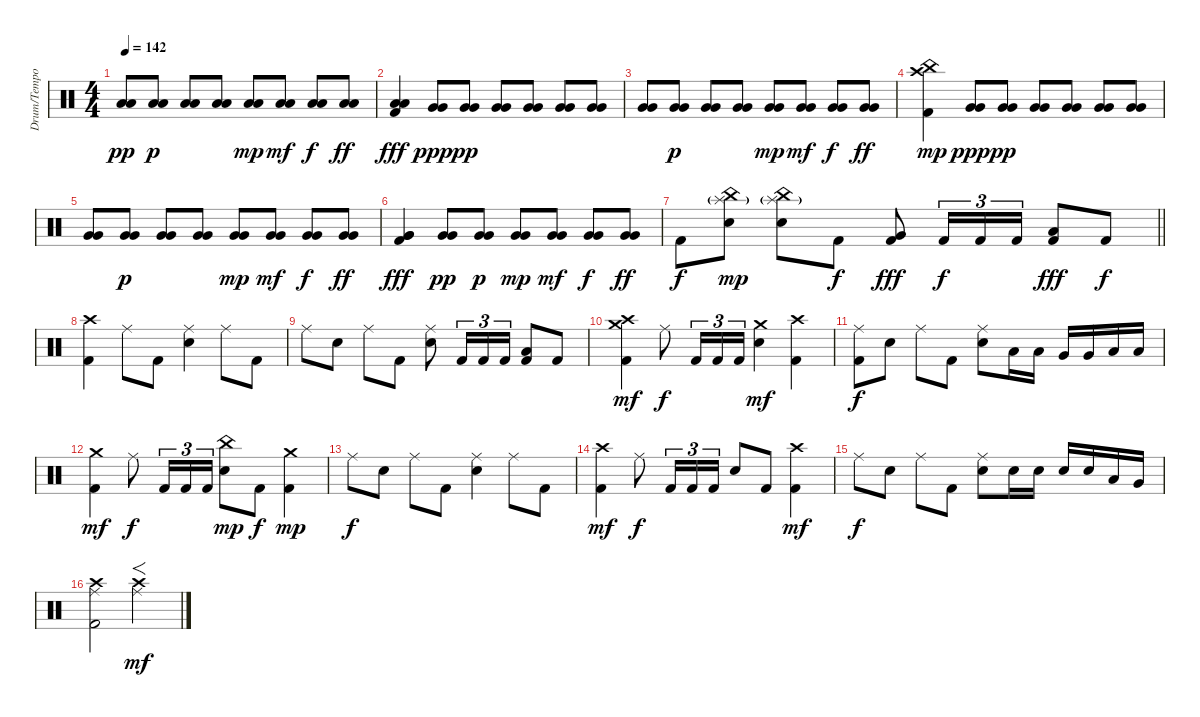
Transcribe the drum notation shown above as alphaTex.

\track ("Drum/Tempo" "Drum/Tempo") {instrument percussion}
\staff {score}
\articulation defaults
\ts (4 4)
\tempo 142
\clef neutral
\ks c
("Low Tom (hit)" "Low Tom (hit)").8{dy pp} ("Low Tom (hit)" "Low Tom (hit)").8{dy p} ("Low Tom (hit)" "Low Tom (hit)").8 ("Low Tom (hit)" "Low Tom (hit)").8 ("Low Tom (hit)" "Low Tom (hit)").8{dy mp} ("Low Tom (hit)" "Low Tom (hit)").8{dy mf} ("Low Tom (hit)" "Low Tom (hit)").8{dy f} ("Low Tom (hit)" "Low Tom (hit)").8{dy ff} |
("Kick (hit) 2" "Low Tom (hit)" "Low Tom (hit)").4{dy fff} ("Very Low Tom (hit)" "Very Low Tom (hit)").8{dy ppp} ("Very Low Tom (hit)" "Very Low Tom (hit)").8{dy pp} ("Very Low Tom (hit)" "Very Low Tom (hit)").8 ("Very Low Tom (hit)" "Very Low Tom (hit)").8 ("Very Low Tom (hit)" "Very Low Tom (hit)").8 ("Very Low Tom (hit)" "Very Low Tom (hit)").8 |
("Very Low Tom (hit)" "Very Low Tom (hit)").8 ("Very Low Tom (hit)" "Very Low Tom (hit)").8{dy p} ("Very Low Tom (hit)" "Very Low Tom (hit)").8 ("Very Low Tom (hit)" "Very Low Tom (hit)").8 ("Very Low Tom (hit)" "Very Low Tom (hit)").8{dy mp} ("Very Low Tom (hit)" "Very Low Tom (hit)").8{dy mf} ("Very Low Tom (hit)" "Very Low Tom (hit)").8{dy f} ("Very Low Tom (hit)" "Very Low Tom (hit)").8{dy ff} |
("Kick (hit) 2" "Crash high (hit)" "China (hit)").4{dy mp} ("Very Low Tom (hit)" "Very Low Tom (hit)").8{dy ppp} ("Very Low Tom (hit)" "Very Low Tom (hit)").8{dy pp} ("Very Low Tom (hit)" "Very Low Tom (hit)").8 ("Very Low Tom (hit)" "Very Low Tom (hit)").8 ("Very Low Tom (hit)" "Very Low Tom (hit)").8 ("Very Low Tom (hit)" "Very Low Tom (hit)").8 |
("Very Low Tom (hit)" "Very Low Tom (hit)").8 ("Very Low Tom (hit)" "Very Low Tom (hit)").8{dy p} ("Very Low Tom (hit)" "Very Low Tom (hit)").8 ("Very Low Tom (hit)" "Very Low Tom (hit)").8 ("Very Low Tom (hit)" "Very Low Tom (hit)").8{dy mp} ("Very Low Tom (hit)" "Very Low Tom (hit)").8{dy mf} ("Very Low Tom (hit)" "Very Low Tom (hit)").8{dy f} ("Very Low Tom (hit)" "Very Low Tom (hit)").8{dy ff} |
("Kick (hit) 2" "Very Low Tom (hit)" "Very Low Tom (hit)").4{dy fff} ("Very Low Tom (hit)" "Very Low Tom (hit)").8{dy pp} ("Very Low Tom (hit)" "Very Low Tom (hit)").8{dy p} ("Very Low Tom (hit)" "Very Low Tom (hit)").8{dy mp} ("Very Low Tom (hit)" "Very Low Tom (hit)").8{dy mf} ("Very Low Tom (hit)" "Very Low Tom (hit)").8{dy f} ("Very Low Tom (hit)" "Very Low Tom (hit)").8{dy ff} |
\barLineRight lightlight "Kick (hit) 2".8{dy f}
("Electric Snare (hit)" "China (hit)" "Splash (hit)"{g}).8{dy mp} ("Electric Snare (hit)" "China (hit)" "Splash (hit)"{g}).8 "Kick (hit) 2".8{dy f} ("Kick (hit) 2" "Very Low Tom (hit)").8{dy fff} "Kick (hit) 2".16{tu (3 2) dy f} "Kick (hit) 2".16{tu (3 2)} "Kick (hit) 2".16{tu (3 2)} ("Kick (hit) 2" "Low Floor Tom (hit)").8{dy fff} "Kick (hit) 2".8{dy f} |
("Kick (hit) 2" "Crash high (hit)").4 "Ride (middle)".8 "Kick (hit) 2".8 ("Electric Snare (hit)" "Ride (middle)").4 "Ride (middle)".8 "Kick (hit) 2".8 |
"Ride (middle)".8 "Electric Snare (hit)".8 "Ride (middle)".8 "Kick (hit) 2".8 ("Electric Snare (hit)" "Ride (middle)").8 "Kick (hit) 2".16{tu (3 2)} "Kick (hit) 2".16{tu (3 2)} "Kick (hit) 2".16{tu (3 2)} ("Kick (hit) 2" "Low Floor Tom (hit)").8 "Kick (hit) 2".8 |
("Kick (hit) 2" "Crash medium (hit)" "Crash high (hit)").4{dy mf} "Ride (middle)".8{dy f} "Kick (hit) 2".16{tu (3 2)} "Kick (hit) 2".16{tu (3 2)} "Kick (hit) 2".16{tu (3 2)} ("Electric Snare (hit)" "Crash medium (hit)").4{dy mf} ("Kick (hit) 2" "Crash high (hit)").4 |
("Kick (hit) 2" "Ride (middle)").8{dy f} "Electric Snare (hit)".8 "Ride (middle)".8 "Kick (hit) 2".8 ("Electric Snare (hit)" "Ride (middle)").8 "Low Tom (hit)".16 "Low Tom (hit)".16 "Very Low Tom (hit)".16 "Very Low Tom (hit)".16 "Low Floor Tom (hit)".16 "Low Floor Tom (hit)".16 |
("Kick (hit) 2" "Crash medium (hit)").4{dy mf} "Ride (middle)".8{dy f} "Kick (hit) 2".16{tu (3 2)} "Kick (hit) 2".16{tu (3 2)} "Kick (hit) 2".16{tu (3 2)} ("Electric Snare (hit)" "China (hit)").8{dy mp} "Kick (hit) 2".8{dy f} ("Kick (hit) 2" "Crash medium (hit)").4{dy mp} |
"Ride (middle)".8{dy f} "Electric Snare (hit)".8 "Ride (middle)".8 "Kick (hit) 2".8 ("Electric Snare (hit)" "Ride (middle)").4 "Ride (middle)".8 "Kick (hit) 2".8 |
("Kick (hit) 2" "Crash high (hit)").4{dy mf} "Ride (middle)".8{dy f} "Kick (hit) 2".16{tu (3 2)} "Kick (hit) 2".16{tu (3 2)} "Kick (hit) 2".16{tu (3 2)} "Electric Snare (hit)".8 "Kick (hit) 2".8 ("Kick (hit) 2" "Crash high (hit)").4{dy mf} |
"Ride (middle)".8{dy f} "Electric Snare (hit)".8 "Ride (middle)".8 "Kick (hit) 2".8 ("Electric Snare (hit)" "Ride (middle)").8 "Electric Snare (hit)".16 "Electric Snare (hit)".16 "Electric Snare (hit)".16 "Electric Snare (hit)".16 "Low Tom (hit)".16 "Very Low Tom (hit)".16 |
("Kick (hit) 2" "Crash high (hit)" "Ride (middle)").2 ("Crash high (hit)" "Ride (middle)").2{f dy mf}
